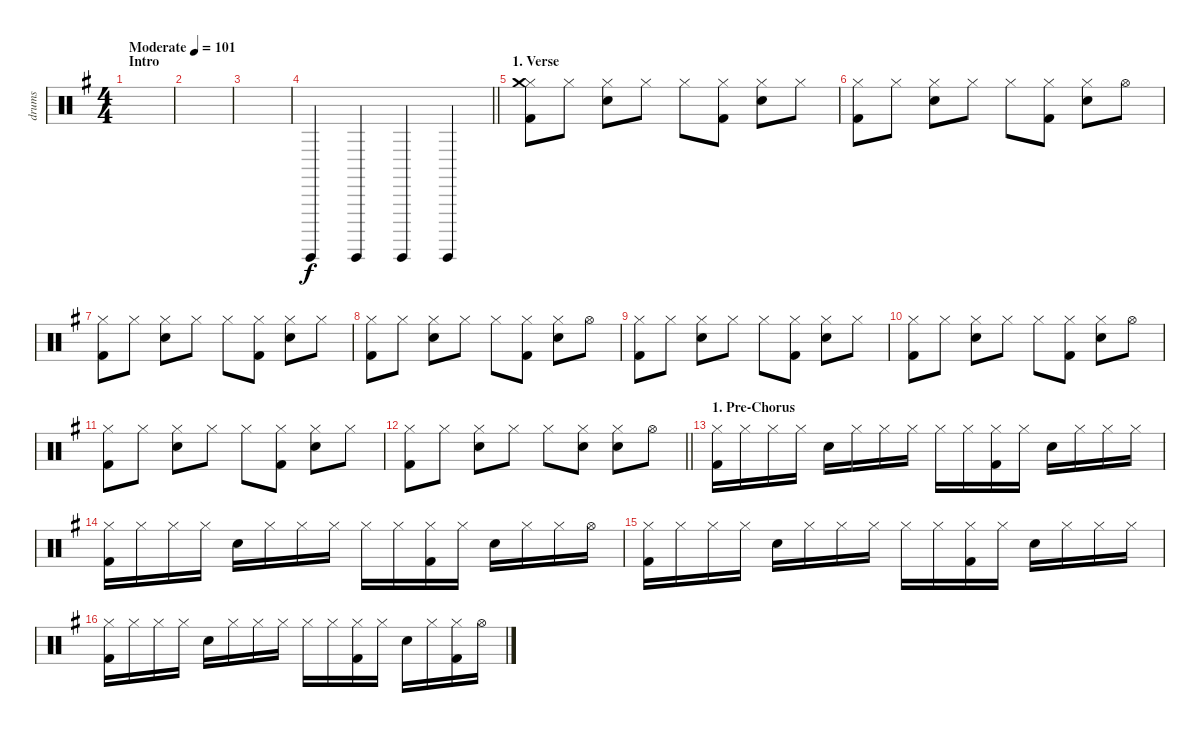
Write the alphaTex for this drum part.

\track ("drums" "drums") {instrument percussion}
\staff {score}
\articulation defaults
\ts (4 4)
\section ("" "Intro")
\tempo (101 "Moderate")
\clef neutral
\ks eminor
|
|
|
\barLineRight lightlight "Guiro (hit)".4 "Guiro (hit)".4 "Guiro (hit)".4 "Guiro (hit)".4
|
\section ("" "1. Verse")
("Hi-Hat (closed)" "Crash medium (hit)" "Kick (hit) 2").8 "Hi-Hat (closed)".8 ("Hi-Hat (closed)" "Snare (hit) 2").8 "Hi-Hat (closed)".8 "Hi-Hat (closed)".8 ("Hi-Hat (closed)" "Kick (hit) 2").8 ("Hi-Hat (closed)" "Snare (hit) 2").8 "Hi-Hat (closed)".8 |
("Hi-Hat (closed)" "Kick (hit) 2").8 "Hi-Hat (closed)".8 ("Hi-Hat (closed)" "Snare (hit) 2").8 "Hi-Hat (closed)".8 "Hi-Hat (closed)".8 ("Hi-Hat (closed)" "Kick (hit) 2").8 ("Hi-Hat (closed)" "Snare (hit) 2").8 "Hi-Hat (open)".8 |
("Hi-Hat (closed)" "Kick (hit) 2").8 "Hi-Hat (closed)".8 ("Hi-Hat (closed)" "Snare (hit) 2").8 "Hi-Hat (closed)".8 "Hi-Hat (closed)".8 ("Hi-Hat (closed)" "Kick (hit) 2").8 ("Hi-Hat (closed)" "Snare (hit) 2").8 "Hi-Hat (closed)".8 |
("Hi-Hat (closed)" "Kick (hit) 2").8 "Hi-Hat (closed)".8 ("Hi-Hat (closed)" "Snare (hit) 2").8 "Hi-Hat (closed)".8 "Hi-Hat (closed)".8 ("Hi-Hat (closed)" "Kick (hit) 2").8 ("Hi-Hat (closed)" "Snare (hit) 2").8 "Hi-Hat (open)".8 |
("Hi-Hat (closed)" "Kick (hit) 2").8 "Hi-Hat (closed)".8 ("Hi-Hat (closed)" "Snare (hit) 2").8 "Hi-Hat (closed)".8 "Hi-Hat (closed)".8 ("Hi-Hat (closed)" "Kick (hit) 2").8 ("Hi-Hat (closed)" "Snare (hit) 2").8 "Hi-Hat (closed)".8 |
("Hi-Hat (closed)" "Kick (hit) 2").8 "Hi-Hat (closed)".8 ("Hi-Hat (closed)" "Snare (hit) 2").8 "Hi-Hat (closed)".8 "Hi-Hat (closed)".8 ("Hi-Hat (closed)" "Kick (hit) 2").8 ("Hi-Hat (closed)" "Snare (hit) 2").8 "Hi-Hat (open)".8 |
("Hi-Hat (closed)" "Kick (hit) 2").8 "Hi-Hat (closed)".8 ("Hi-Hat (closed)" "Snare (hit) 2").8 "Hi-Hat (closed)".8 "Hi-Hat (closed)".8 ("Hi-Hat (closed)" "Kick (hit) 2").8 ("Hi-Hat (closed)" "Snare (hit) 2").8 "Hi-Hat (closed)".8 |
\barLineRight lightlight
("Hi-Hat (closed)" "Kick (hit) 2").8 "Hi-Hat (closed)".8 ("Hi-Hat (closed)" "Snare (hit) 2").8 "Hi-Hat (closed)".8 "Hi-Hat (closed)".8 ("Hi-Hat (closed)" "Snare (hit) 2").8 ("Hi-Hat (closed)" "Snare (hit) 2").8 "Hi-Hat (open)".8 |
\section ("" "1. Pre-Chorus")
("Hi-Hat (closed)" "Kick (hit) 2").16 "Hi-Hat (closed)".16 "Hi-Hat (closed)".16 "Hi-Hat (closed)".16 "Snare (hit) 2".16 "Hi-Hat (closed)".16 "Hi-Hat (closed)".16 "Hi-Hat (closed)".16 "Hi-Hat (closed)".16 "Hi-Hat (closed)".16 ("Hi-Hat (closed)" "Kick (hit) 2").16 "Hi-Hat (closed)".16 "Snare (hit) 2".16 "Hi-Hat (closed)".16 "Hi-Hat (closed)".16 "Hi-Hat (closed)".16 |
("Hi-Hat (closed)" "Kick (hit) 2").16 "Hi-Hat (closed)".16 "Hi-Hat (closed)".16 "Hi-Hat (closed)".16 "Snare (hit) 2".16 "Hi-Hat (closed)".16 "Hi-Hat (closed)".16 "Hi-Hat (closed)".16 "Hi-Hat (closed)".16 "Hi-Hat (closed)".16 ("Hi-Hat (closed)" "Kick (hit) 2").16 "Hi-Hat (closed)".16 "Snare (hit) 2".16 "Hi-Hat (closed)".16 "Hi-Hat (closed)".16 "Hi-Hat (open)".16 |
("Hi-Hat (closed)" "Kick (hit) 2").16 "Hi-Hat (closed)".16 "Hi-Hat (closed)".16 "Hi-Hat (closed)".16 "Snare (hit) 2".16 "Hi-Hat (closed)".16 "Hi-Hat (closed)".16 "Hi-Hat (closed)".16 "Hi-Hat (closed)".16 "Hi-Hat (closed)".16 ("Hi-Hat (closed)" "Kick (hit) 2").16 "Hi-Hat (closed)".16 "Snare (hit) 2".16 "Hi-Hat (closed)".16 "Hi-Hat (closed)".16 "Hi-Hat (closed)".16 |
("Hi-Hat (closed)" "Kick (hit) 2").16 "Hi-Hat (closed)".16 "Hi-Hat (closed)".16 "Hi-Hat (closed)".16 "Snare (hit) 2".16 "Hi-Hat (closed)".16 "Hi-Hat (closed)".16 "Hi-Hat (closed)".16 "Hi-Hat (closed)".16 "Hi-Hat (closed)".16 ("Hi-Hat (closed)" "Kick (hit) 2").16 "Hi-Hat (closed)".16 "Snare (hit) 2".16 "Hi-Hat (closed)".16 ("Hi-Hat (closed)" "Kick (hit) 2").16 "Hi-Hat (open)".16
